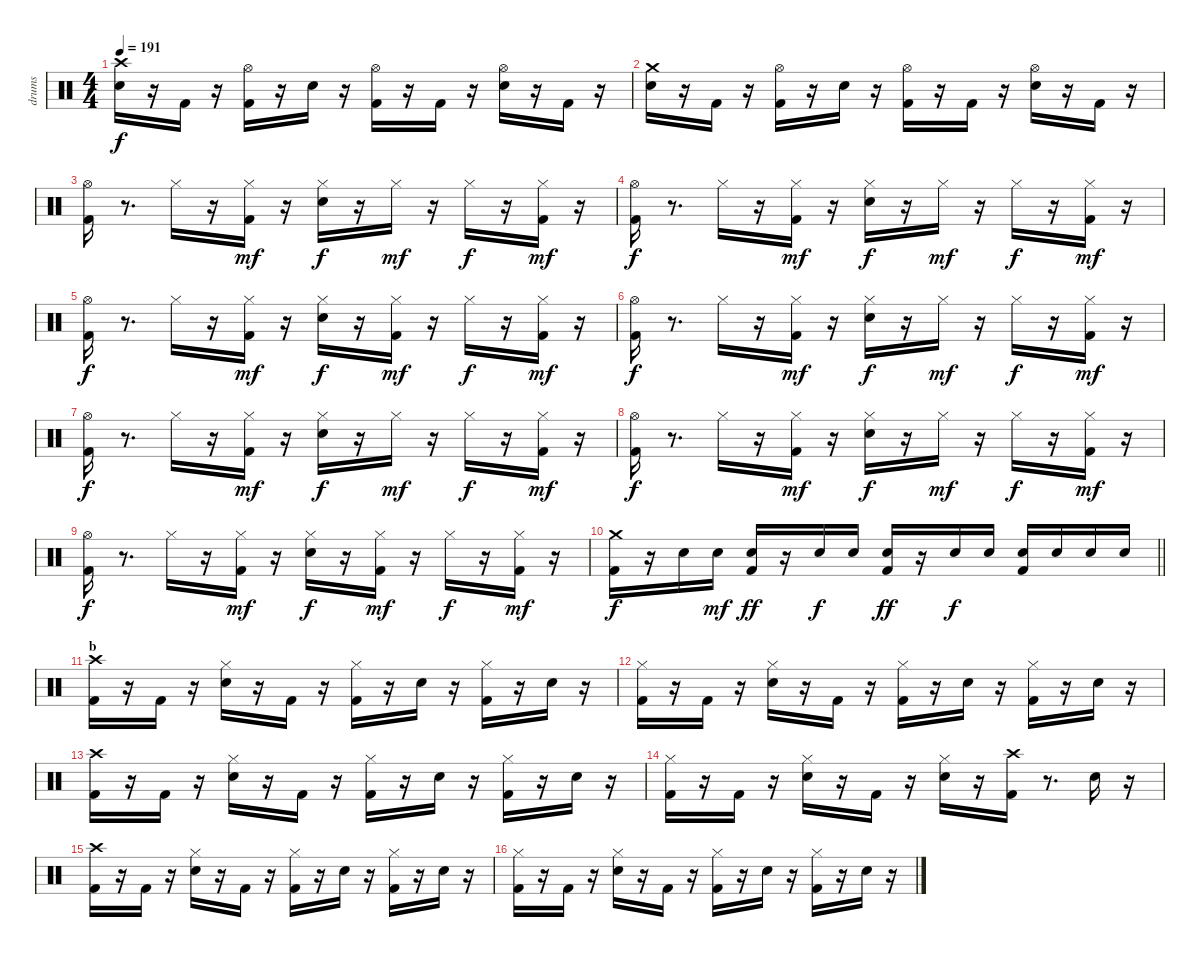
\track ("drums" "drums") {instrument percussion}
\staff {score}
\articulation defaults
\ts (4 4)
\tempo 191
\clef neutral
\ks c
("Snare (hit) 2" "Crash high (hit)").16{dy f} r.16 "Kick (hit) 2".16 r.16 ("Kick (hit) 2" "Hi-Hat (open)").16 r.16 "Snare (hit) 2".16 r.16 ("Kick (hit) 2" "Hi-Hat (open)").16 r.16 "Kick (hit) 2".16 r.16 ("Snare (hit) 2" "Hi-Hat (open)").16 r.16 "Kick (hit) 2".16 r.16 |
("Snare (hit) 2" "Crash medium (hit)").16 r.16 "Kick (hit) 2".16 r.16 ("Kick (hit) 2" "Hi-Hat (open)").16 r.16 "Snare (hit) 2".16 r.16 ("Kick (hit) 2" "Hi-Hat (open)").16 r.16 "Kick (hit) 2".16 r.16 ("Snare (hit) 2" "Hi-Hat (open)").16 r.16 "Kick (hit) 2".16 r.16 |
("Kick (hit) 2" "Hi-Hat (open)").16 r.8{d} "Hi-Hat (closed)".16 r.16 ("Kick (hit) 2" "Hi-Hat (closed)").16{dy mf} r.16 ("Snare (hit) 2" "Hi-Hat (closed)").16{dy f} r.16 "Hi-Hat (closed)".16{dy mf} r.16 "Hi-Hat (closed)".16{dy f} r.16 ("Kick (hit) 2" "Hi-Hat (closed)").16{dy mf} r.16 |
("Kick (hit) 2" "Hi-Hat (open)").16{dy f} r.8{d} "Hi-Hat (closed)".16 r.16 ("Kick (hit) 2" "Hi-Hat (closed)").16{dy mf} r.16 ("Snare (hit) 2" "Hi-Hat (closed)").16{dy f} r.16 "Hi-Hat (closed)".16{dy mf} r.16 "Hi-Hat (closed)".16{dy f} r.16 ("Kick (hit) 2" "Hi-Hat (closed)").16{dy mf} r.16 |
("Kick (hit) 2" "Hi-Hat (open)").16{dy f} r.8{d} "Hi-Hat (closed)".16 r.16 ("Kick (hit) 2" "Hi-Hat (closed)").16{dy mf} r.16 ("Snare (hit) 2" "Hi-Hat (closed)").16{dy f} r.16 ("Kick (hit) 2" "Hi-Hat (closed)").16{dy mf} r.16 "Hi-Hat (closed)".16{dy f} r.16 ("Kick (hit) 2" "Hi-Hat (closed)").16{dy mf} r.16 |
("Kick (hit) 2" "Hi-Hat (open)").16{dy f} r.8{d} "Hi-Hat (closed)".16 r.16 ("Kick (hit) 2" "Hi-Hat (closed)").16{dy mf} r.16 ("Snare (hit) 2" "Hi-Hat (closed)").16{dy f} r.16 "Hi-Hat (closed)".16{dy mf} r.16 "Hi-Hat (closed)".16{dy f} r.16 ("Kick (hit) 2" "Hi-Hat (closed)").16{dy mf} r.16 |
("Kick (hit) 2" "Hi-Hat (open)").16{dy f} r.8{d} "Hi-Hat (closed)".16 r.16 ("Kick (hit) 2" "Hi-Hat (closed)").16{dy mf} r.16 ("Snare (hit) 2" "Hi-Hat (closed)").16{dy f} r.16 "Hi-Hat (closed)".16{dy mf} r.16 "Hi-Hat (closed)".16{dy f} r.16 ("Kick (hit) 2" "Hi-Hat (closed)").16{dy mf} r.16 |
("Kick (hit) 2" "Hi-Hat (open)").16{dy f} r.8{d} "Hi-Hat (closed)".16 r.16 ("Kick (hit) 2" "Hi-Hat (closed)").16{dy mf} r.16 ("Snare (hit) 2" "Hi-Hat (closed)").16{dy f} r.16 "Hi-Hat (closed)".16{dy mf} r.16 "Hi-Hat (closed)".16{dy f} r.16 ("Kick (hit) 2" "Hi-Hat (closed)").16{dy mf} r.16 |
("Kick (hit) 2" "Hi-Hat (open)").16{dy f} r.8{d} "Hi-Hat (closed)".16 r.16 ("Kick (hit) 2" "Hi-Hat (closed)").16{dy mf} r.16 ("Snare (hit) 2" "Hi-Hat (closed)").16{dy f} r.16 ("Kick (hit) 2" "Hi-Hat (closed)").16{dy mf} r.16 "Hi-Hat (closed)".16{dy f} r.16 ("Kick (hit) 2" "Hi-Hat (closed)").16{dy mf} r.16 |
\barLineRight lightlight
("Kick (hit) 2" "Crash medium (hit)").16{dy f} r.16 "Snare (hit) 2".16 "Snare (hit) 2".16{dy mf} ("Kick (hit) 2" "Snare (hit) 2").16{dy ff} r.16 "Snare (hit) 2".16{dy f} "Snare (hit) 2".16 ("Kick (hit) 2" "Snare (hit) 2").16{dy ff} r.16 "Snare (hit) 2".16{dy f} "Snare (hit) 2".16 ("Kick (hit) 2" "Snare (hit) 2").16 "Snare (hit) 2".16 "Snare (hit) 2".16 "Snare (hit) 2".16 |
\section ("" "b")
("Kick (hit) 2" "Crash high (hit)").16 r.16 "Kick (hit) 2".16 r.16 ("Snare (hit) 2" "Hi-Hat (closed)").16 r.16 "Kick (hit) 2".16 r.16 ("Kick (hit) 2" "Hi-Hat (closed)").16 r.16 "Snare (hit) 2".16 r.16 ("Kick (hit) 2" "Hi-Hat (closed)").16 r.16 "Snare (hit) 2".16 r.16 |
("Kick (hit) 2" "Hi-Hat (closed)").16 r.16 "Kick (hit) 2".16 r.16 ("Snare (hit) 2" "Hi-Hat (closed)").16 r.16 "Kick (hit) 2".16 r.16 ("Kick (hit) 2" "Hi-Hat (closed)").16 r.16 "Snare (hit) 2".16 r.16 ("Kick (hit) 2" "Hi-Hat (closed)").16 r.16 "Snare (hit) 2".16 r.16 |
("Kick (hit) 2" "Crash high (hit)").16 r.16 "Kick (hit) 2".16 r.16 ("Snare (hit) 2" "Hi-Hat (closed)").16 r.16 "Kick (hit) 2".16 r.16 ("Kick (hit) 2" "Hi-Hat (closed)").16 r.16 "Snare (hit) 2".16 r.16 ("Kick (hit) 2" "Hi-Hat (closed)").16 r.16 "Snare (hit) 2".16 r.16 |
("Kick (hit) 2" "Hi-Hat (closed)").16 r.16 "Kick (hit) 2".16 r.16 ("Snare (hit) 2" "Hi-Hat (closed)").16 r.16 "Kick (hit) 2".16 r.16 ("Snare (hit) 2" "Hi-Hat (closed)").16 r.16 ("Kick (hit) 2" "Crash high (hit)").16 r.8{d} "Snare (hit) 2".16 r.16 |
("Kick (hit) 2" "Crash high (hit)").16 r.16 "Kick (hit) 2".16 r.16 ("Snare (hit) 2" "Hi-Hat (closed)").16 r.16 "Kick (hit) 2".16 r.16 ("Kick (hit) 2" "Hi-Hat (closed)").16 r.16 "Snare (hit) 2".16 r.16 ("Kick (hit) 2" "Hi-Hat (closed)").16 r.16 "Snare (hit) 2".16 r.16 |
("Kick (hit) 2" "Hi-Hat (closed)").16 r.16 "Kick (hit) 2".16 r.16 ("Snare (hit) 2" "Hi-Hat (closed)").16 r.16 "Kick (hit) 2".16 r.16 ("Kick (hit) 2" "Hi-Hat (closed)").16 r.16 "Snare (hit) 2".16 r.16 ("Kick (hit) 2" "Hi-Hat (closed)").16 r.16 "Snare (hit) 2".16 r.16
